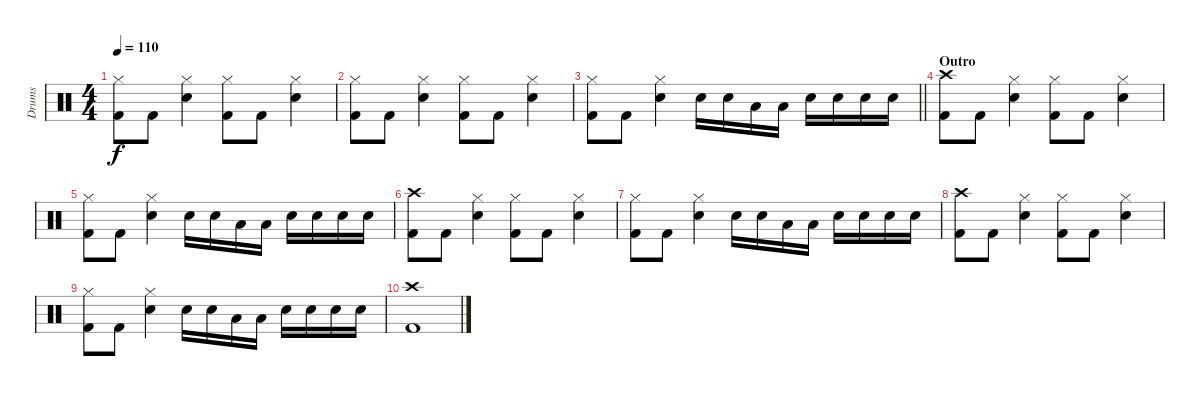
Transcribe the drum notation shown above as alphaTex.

\track ("Drums" "Drums") {instrument percussion}
\staff {score}
\articulation defaults
\ts (4 4)
\tempo 110
\clef neutral
\ks c
("Hi-Hat (closed)" "Kick (hit) 2").8{dy f} "Kick (hit) 2".8 ("Hi-Hat (closed)" "Snare (hit) 2").4 ("Hi-Hat (closed)" "Kick (hit) 2").8 "Kick (hit) 2".8 ("Hi-Hat (closed)" "Snare (hit) 2").4 |
("Hi-Hat (closed)" "Kick (hit) 2").8 "Kick (hit) 2".8 ("Hi-Hat (closed)" "Snare (hit) 2").4 ("Hi-Hat (closed)" "Kick (hit) 2").8 "Kick (hit) 2".8 ("Hi-Hat (closed)" "Snare (hit) 2").4 |
\barLineRight lightlight
("Hi-Hat (closed)" "Kick (hit) 2").8 "Kick (hit) 2".8 ("Hi-Hat (closed)" "Snare (hit) 2").4 "Snare (hit) 2".16 "Snare (hit) 2".16 "Low Floor Tom (hit)".16 "Low Floor Tom (hit)".16 "Snare (hit) 2".16 "Snare (hit) 2".16 "Snare (hit) 2".16 "Snare (hit) 2".16 |
\section ("" "Outro")
("Crash high (hit)" "Kick (hit) 2").8 "Kick (hit) 2".8 ("Hi-Hat (closed)" "Snare (hit) 2").4 ("Hi-Hat (closed)" "Kick (hit) 2").8 "Kick (hit) 2".8 ("Hi-Hat (closed)" "Snare (hit) 2").4 |
("Hi-Hat (closed)" "Kick (hit) 2").8 "Kick (hit) 2".8 ("Hi-Hat (closed)" "Snare (hit) 2").4 "Snare (hit) 2".16 "Snare (hit) 2".16 "Low Floor Tom (hit)".16 "Low Floor Tom (hit)".16 "Snare (hit) 2".16 "Snare (hit) 2".16 "Snare (hit) 2".16 "Snare (hit) 2".16 |
("Crash high (hit)" "Kick (hit) 2").8 "Kick (hit) 2".8 ("Hi-Hat (closed)" "Snare (hit) 2").4 ("Hi-Hat (closed)" "Kick (hit) 2").8 "Kick (hit) 2".8 ("Hi-Hat (closed)" "Snare (hit) 2").4 |
("Hi-Hat (closed)" "Kick (hit) 2").8 "Kick (hit) 2".8 ("Hi-Hat (closed)" "Snare (hit) 2").4 "Snare (hit) 2".16 "Snare (hit) 2".16 "Low Floor Tom (hit)".16 "Low Floor Tom (hit)".16 "Snare (hit) 2".16 "Snare (hit) 2".16 "Snare (hit) 2".16 "Snare (hit) 2".16 |
("Crash high (hit)" "Kick (hit) 2").8 "Kick (hit) 2".8 ("Hi-Hat (closed)" "Snare (hit) 2").4 ("Hi-Hat (closed)" "Kick (hit) 2").8 "Kick (hit) 2".8 ("Hi-Hat (closed)" "Snare (hit) 2").4 |
("Hi-Hat (closed)" "Kick (hit) 2").8 "Kick (hit) 2".8 ("Hi-Hat (closed)" "Snare (hit) 2").4 "Snare (hit) 2".16 "Snare (hit) 2".16 "Low Floor Tom (hit)".16 "Low Floor Tom (hit)".16 "Snare (hit) 2".16 "Snare (hit) 2".16 "Snare (hit) 2".16 "Snare (hit) 2".16 |
("Crash high (hit)" "Kick (hit) 2").1
